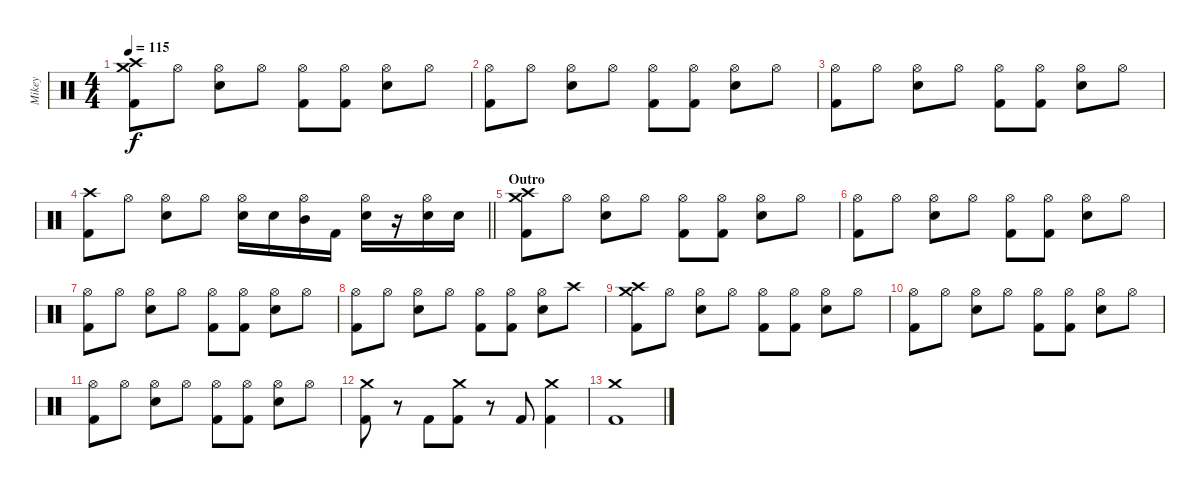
\track ("Mikey" "Mikey") {instrument percussion}
\staff {score}
\articulation defaults
\ts (4 4)
\tempo 115
\clef neutral
\ks c
("Crash high (hit)" "Crash medium (hit)" "Kick (hit) 2").8{dy f} "Hi-Hat (open)".8 ("Hi-Hat (open)" "Snare (hit) 2").8 "Hi-Hat (open)".8 ("Hi-Hat (open)" "Kick (hit) 2").8 ("Hi-Hat (open)" "Kick (hit) 2").8 ("Hi-Hat (open)" "Snare (hit) 2").8 "Hi-Hat (open)".8 |
("Hi-Hat (open)" "Kick (hit) 2").8 "Hi-Hat (open)".8 ("Hi-Hat (open)" "Snare (hit) 2").8 "Hi-Hat (open)".8 ("Hi-Hat (open)" "Kick (hit) 2").8 ("Hi-Hat (open)" "Kick (hit) 2").8 ("Hi-Hat (open)" "Snare (hit) 2").8 "Hi-Hat (open)".8 |
("Hi-Hat (open)" "Kick (hit) 2").8 "Hi-Hat (open)".8 ("Hi-Hat (open)" "Snare (hit) 2").8 "Hi-Hat (open)".8 ("Hi-Hat (open)" "Kick (hit) 2").8 ("Hi-Hat (open)" "Kick (hit) 2").8 ("Hi-Hat (open)" "Snare (hit) 2").8 "Hi-Hat (open)".8 |
\barLineRight lightlight
("Crash high (hit)" "Kick (hit) 2").8 "Hi-Hat (open)".8 ("Hi-Hat (open)" "Snare (hit) 2").8 "Hi-Hat (open)".8 ("Hi-Hat (open)" "Snare (hit) 2").16 "Snare (hit) 2".16 ("Hi-Hat (open)" "Mid Tom (hit)").16 "Kick (hit) 2".16 ("Hi-Hat (open)" "Snare (hit) 2").16 r.16 ("Hi-Hat (open)" "Snare (hit) 2").16 "Snare (hit) 2".16 |
\section ("" "Outro")
("Crash high (hit)" "Crash medium (hit)" "Kick (hit) 2").8 "Hi-Hat (open)".8 ("Hi-Hat (open)" "Snare (hit) 2").8 "Hi-Hat (open)".8 ("Hi-Hat (open)" "Kick (hit) 2").8 ("Hi-Hat (open)" "Kick (hit) 2").8 ("Hi-Hat (open)" "Snare (hit) 2").8 "Hi-Hat (open)".8 |
("Hi-Hat (open)" "Kick (hit) 2").8 "Hi-Hat (open)".8 ("Hi-Hat (open)" "Snare (hit) 2").8 "Hi-Hat (open)".8 ("Hi-Hat (open)" "Kick (hit) 2").8 ("Hi-Hat (open)" "Kick (hit) 2").8 ("Hi-Hat (open)" "Snare (hit) 2").8 "Hi-Hat (open)".8 |
("Hi-Hat (open)" "Kick (hit) 2").8 "Hi-Hat (open)".8 ("Hi-Hat (open)" "Snare (hit) 2").8 "Hi-Hat (open)".8 ("Hi-Hat (open)" "Kick (hit) 2").8 ("Hi-Hat (open)" "Kick (hit) 2").8 ("Hi-Hat (open)" "Snare (hit) 2").8 "Hi-Hat (open)".8 |
("Hi-Hat (open)" "Kick (hit) 2").8 "Hi-Hat (open)".8 ("Hi-Hat (open)" "Snare (hit) 2").8 "Hi-Hat (open)".8 ("Hi-Hat (open)" "Kick (hit) 2").8 ("Hi-Hat (open)" "Kick (hit) 2").8 ("Hi-Hat (open)" "Snare (hit) 2").8 "Crash high (hit)".8 |
("Crash high (hit)" "Crash medium (hit)" "Kick (hit) 2").8 "Hi-Hat (open)".8 ("Hi-Hat (open)" "Snare (hit) 2").8 "Hi-Hat (open)".8 ("Hi-Hat (open)" "Kick (hit) 2").8 ("Hi-Hat (open)" "Kick (hit) 2").8 ("Hi-Hat (open)" "Snare (hit) 2").8 "Hi-Hat (open)".8 |
("Hi-Hat (open)" "Kick (hit) 2").8 "Hi-Hat (open)".8 ("Hi-Hat (open)" "Snare (hit) 2").8 "Hi-Hat (open)".8 ("Hi-Hat (open)" "Kick (hit) 2").8 ("Hi-Hat (open)" "Kick (hit) 2").8 ("Hi-Hat (open)" "Snare (hit) 2").8 "Hi-Hat (open)".8 |
("Hi-Hat (open)" "Kick (hit) 2").8 "Hi-Hat (open)".8 ("Hi-Hat (open)" "Snare (hit) 2").8 "Hi-Hat (open)".8 ("Hi-Hat (open)" "Kick (hit) 2").8 ("Hi-Hat (open)" "Kick (hit) 2").8 ("Hi-Hat (open)" "Snare (hit) 2").8 "Hi-Hat (open)".8 |
("Crash medium (hit)" "Kick (hit) 2").8 r.8 "Kick (hit) 2".8 ("Crash medium (hit)" "Kick (hit) 2").8 r.8 "Kick (hit) 2".8 ("Crash medium (hit)" "Kick (hit) 2").4 |
("Crash medium (hit)" "Kick (hit) 2").1
